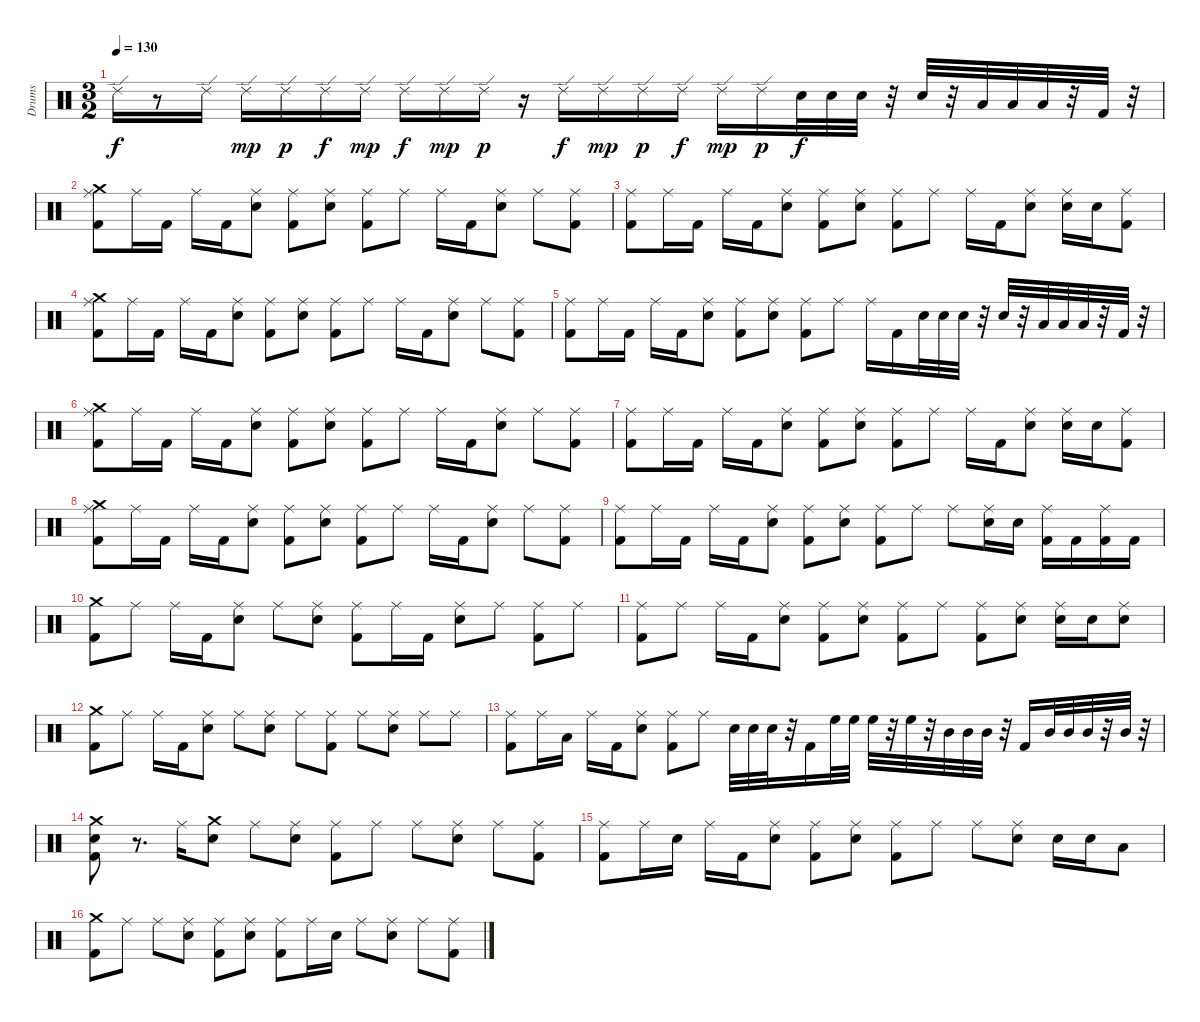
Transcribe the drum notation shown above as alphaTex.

\track ("Drums" "Drums") {instrument percussion}
\staff {score}
\articulation defaults
\ts (3 2)
\tempo 130
\clef neutral
\ks c "Ride (edge) 2".16{dy f}
r.8 "Ride (edge) 2".16 "Ride (edge) 2".16{dy mp} "Ride (edge) 2".16{dy p} "Ride (edge) 2".16{dy f} "Ride (edge) 2".16{dy mp} "Ride (edge) 2".16{dy f} "Ride (edge) 2".16{dy mp} "Ride (edge) 2".16{dy p} r.16 "Ride (edge) 2".16{dy f} "Ride (edge) 2".16{dy mp} "Ride (edge) 2".16{dy p} "Ride (edge) 2".16{dy f} "Ride (edge) 2".16{dy mp} "Ride (edge) 2".16{dy p} "Electric Snare (hit)".32{dy f} "Electric Snare (hit)".32 "Electric Snare (hit)".32 r.32 "Electric Snare (hit)".32 r.32 "Low Floor Tom (hit)".32 "Low Floor Tom (hit)".32 "Low Floor Tom (hit)".32 r.32 "Kick (hit) 2".32 r.32 |
("Ride (middle)" "Kick (hit) 2" "Crash medium (hit)").8 "Ride (middle)".16 "Kick (hit) 2".16 "Ride (middle)".16 "Kick (hit) 2".16 ("Electric Snare (hit)" "Ride (middle)").8 ("Ride (middle)" "Kick (hit) 2").8 ("Electric Snare (hit)" "Ride (middle)").8 ("Ride (middle)" "Kick (hit) 2").8 "Ride (middle)".8 "Ride (middle)".16 "Kick (hit) 2".16 ("Ride (middle)" "Electric Snare (hit)").8 "Ride (middle)".8 ("Ride (middle)" "Kick (hit) 2").8 |
("Ride (middle)" "Kick (hit) 2").8 "Ride (middle)".16 "Kick (hit) 2".16 "Ride (middle)".16 "Kick (hit) 2".16 ("Ride (middle)" "Electric Snare (hit)").8 ("Kick (hit) 2" "Ride (middle)").8 ("Electric Snare (hit)" "Ride (middle)").8 ("Kick (hit) 2" "Ride (middle)").8 "Ride (middle)".8 "Ride (middle)".16 "Kick (hit) 2".16 ("Electric Snare (hit)" "Ride (middle)").8 ("Electric Snare (hit)" "Ride (middle)").16 "Electric Snare (hit)".16 ("Kick (hit) 2" "Ride (middle)").8 |
("Ride (middle)" "Crash medium (hit)" "Kick (hit) 2").8 "Ride (middle)".16 "Kick (hit) 2".16 "Ride (middle)".16 "Kick (hit) 2".16 ("Ride (middle)" "Electric Snare (hit)").8 ("Ride (middle)" "Kick (hit) 2").8 ("Electric Snare (hit)" "Ride (middle)").8 ("Kick (hit) 2" "Ride (middle)").8 "Ride (middle)".8 "Ride (middle)".16 "Kick (hit) 2".16 ("Ride (middle)" "Electric Snare (hit)").8 "Ride (middle)".8 ("Ride (middle)" "Kick (hit) 2").8 |
("Ride (middle)" "Kick (hit) 2").8 "Ride (middle)".16 "Kick (hit) 2".16 "Ride (middle)".16 "Kick (hit) 2".16 ("Electric Snare (hit)" "Ride (middle)").8 ("Kick (hit) 2" "Ride (middle)").8 ("Ride (middle)" "Electric Snare (hit)").8 ("Ride (middle)" "Kick (hit) 2").8 "Ride (middle)".8 "Ride (middle)".16 "Kick (hit) 2".16 "Electric Snare (hit)".32 "Electric Snare (hit)".32 "Electric Snare (hit)".32 r.32 "Electric Snare (hit)".32 r.32 "Low Floor Tom (hit)".32 "Low Floor Tom (hit)".32 "Low Floor Tom (hit)".32 r.32 "Kick (hit) 2".32 r.32 |
("Kick (hit) 2" "Ride (middle)" "Crash medium (hit)").8 "Ride (middle)".16 "Kick (hit) 2".16 "Ride (middle)".16 "Kick (hit) 2".16 ("Electric Snare (hit)" "Ride (middle)").8 ("Kick (hit) 2" "Ride (middle)").8 ("Electric Snare (hit)" "Ride (middle)").8 ("Ride (middle)" "Kick (hit) 2").8 "Ride (middle)".8 "Ride (middle)".16 "Kick (hit) 2".16 ("Ride (middle)" "Electric Snare (hit)").8 "Ride (middle)".8 ("Kick (hit) 2" "Ride (middle)").8 |
("Ride (middle)" "Kick (hit) 2").8 "Ride (middle)".16 "Kick (hit) 2".16 "Ride (middle)".16 "Kick (hit) 2".16 ("Ride (middle)" "Electric Snare (hit)").8 ("Ride (middle)" "Kick (hit) 2").8 ("Ride (middle)" "Electric Snare (hit)").8 ("Kick (hit) 2" "Ride (middle)").8 "Ride (middle)".8 "Ride (middle)".16 "Kick (hit) 2".16 ("Electric Snare (hit)" "Ride (middle)").8 ("Electric Snare (hit)" "Ride (middle)").16 "Electric Snare (hit)".16 ("Ride (middle)" "Kick (hit) 2").8 |
("Ride (middle)" "Crash medium (hit)" "Kick (hit) 2").8 "Ride (middle)".16 "Kick (hit) 2".16 "Ride (middle)".16 "Kick (hit) 2".16 ("Electric Snare (hit)" "Ride (middle)").8 ("Ride (middle)" "Kick (hit) 2").8 ("Electric Snare (hit)" "Ride (middle)").8 ("Kick (hit) 2" "Ride (middle)").8 "Ride (middle)".8 "Ride (middle)".16 "Kick (hit) 2".16 ("Electric Snare (hit)" "Ride (middle)").8 "Ride (middle)".8 ("Ride (middle)" "Kick (hit) 2").8 |
("Ride (middle)" "Kick (hit) 2").8 "Ride (middle)".16 "Kick (hit) 2".16 "Ride (middle)".16 "Kick (hit) 2".16 ("Ride (middle)" "Electric Snare (hit)").8 ("Kick (hit) 2" "Ride (middle)").8 ("Electric Snare (hit)" "Ride (middle)").8 ("Kick (hit) 2" "Ride (middle)").8 "Ride (middle)".8 "Ride (middle)".8 ("Electric Snare (hit)" "Ride (middle)").16 "Electric Snare (hit)".16 ("Kick (hit) 2" "Ride (middle)").16 "Kick (hit) 2".16 ("Ride (middle)" "Kick (hit) 2").16 "Kick (hit) 2".16 |
("Crash medium (hit)" "Kick (hit) 2").8 "Ride (middle)".8 "Ride (middle)".16 "Kick (hit) 2".16 ("Ride (middle)" "Electric Snare (hit)").8 "Ride (middle)".8 ("Electric Snare (hit)" "Ride (middle)").8 ("Ride (middle)" "Kick (hit) 2").8 "Ride (middle)".16 "Kick (hit) 2".16 ("Electric Snare (hit)" "Ride (middle)").8 "Ride (middle)".8 ("Ride (middle)" "Kick (hit) 2").8 "Ride (middle)".8 |
("Ride (middle)" "Kick (hit) 2").8 "Ride (middle)".8 "Ride (middle)".16 "Kick (hit) 2".16 ("Ride (middle)" "Electric Snare (hit)").8 ("Kick (hit) 2" "Ride (middle)").8 ("Ride (middle)" "Electric Snare (hit)").8 ("Kick (hit) 2" "Ride (middle)").8 "Ride (middle)".8 ("Kick (hit) 2" "Ride (middle)").8 ("Electric Snare (hit)" "Ride (middle)").8 ("Ride (middle)" "Electric Snare (hit)").16 "Electric Snare (hit)".16 ("Ride (middle)" "Electric Snare (hit)").8 |
("Crash medium (hit)" "Kick (hit) 2").8 "Ride (middle)".8 "Ride (middle)".16 "Kick (hit) 2".16 ("Ride (middle)" "Electric Snare (hit)").8 "Ride (middle)".8 ("Ride (middle)" "Electric Snare (hit)").8 "Ride (middle)".8 ("Kick (hit) 2" "Ride (middle)").8 "Ride (middle)".8 ("Electric Snare (hit)" "Ride (middle)").8 "Ride (middle)".8 "Ride (middle)".8 |
("Kick (hit) 2" "Ride (middle)").8 "Ride (middle)".16 "Low Floor Tom (hit)".16 "Ride (middle)".16 "Kick (hit) 2".16 ("Ride (middle)" "Electric Snare (hit)").8 ("Kick (hit) 2" "Ride (middle)").8 "Ride (middle)".8 "Electric Snare (hit)".32 "Electric Snare (hit)".32 "Electric Snare (hit)".32 r.32 "Kick (hit) 2".16 "High Floor Tom (hit)".32 "High Floor Tom (hit)".32 "High Floor Tom (hit)".32 r.32 "High Floor Tom (hit)".32 r.32 "Mid Tom (hit)".32 "Mid Tom (hit)".32 "Mid Tom (hit)".32 r.32 "Kick (hit) 2".16 "Mid Tom (hit)".32 "Mid Tom (hit)".32 "Mid Tom (hit)".32 r.32 "Mid Tom (hit)".32 r.32 |
("Electric Snare (hit)" "Crash medium (hit)" "Kick (hit) 2").8 r.8{d} "Ride (middle)".16 ("Crash medium (hit)" "Electric Snare (hit)").8 "Ride (middle)".8 ("Electric Snare (hit)" "Ride (middle)").8 ("Kick (hit) 2" "Ride (middle)").8 "Ride (middle)".8 "Ride (middle)".8 ("Ride (middle)" "Electric Snare (hit)").8 "Ride (middle)".8 ("Ride (middle)" "Kick (hit) 2").8 |
("Kick (hit) 2" "Ride (middle)").8 "Ride (middle)".16 "Electric Snare (hit)".16 "Ride (middle)".16 "Kick (hit) 2".16 ("Ride (middle)" "Electric Snare (hit)").8 ("Kick (hit) 2" "Ride (middle)").8 ("Ride (middle)" "Electric Snare (hit)").8 ("Kick (hit) 2" "Ride (middle)").8 "Ride (middle)".8 "Ride (middle)".8 ("Electric Snare (hit)" "Ride (middle)").8 "Electric Snare (hit)".16 "Electric Snare (hit)".16 "Low Floor Tom (hit)".8 |
("Kick (hit) 2" "Crash medium (hit)").8 "Ride (middle)".8 "Ride (middle)".8 ("Electric Snare (hit)" "Ride (middle)").8 ("Kick (hit) 2" "Ride (middle)").8 ("Electric Snare (hit)" "Ride (middle)").8 ("Ride (middle)" "Kick (hit) 2").8 "Ride (middle)".16 "Electric Snare (hit)".16 "Ride (middle)".8 ("Ride (middle)" "Electric Snare (hit)").8 "Ride (middle)".8 ("Kick (hit) 2" "Ride (middle)").8
